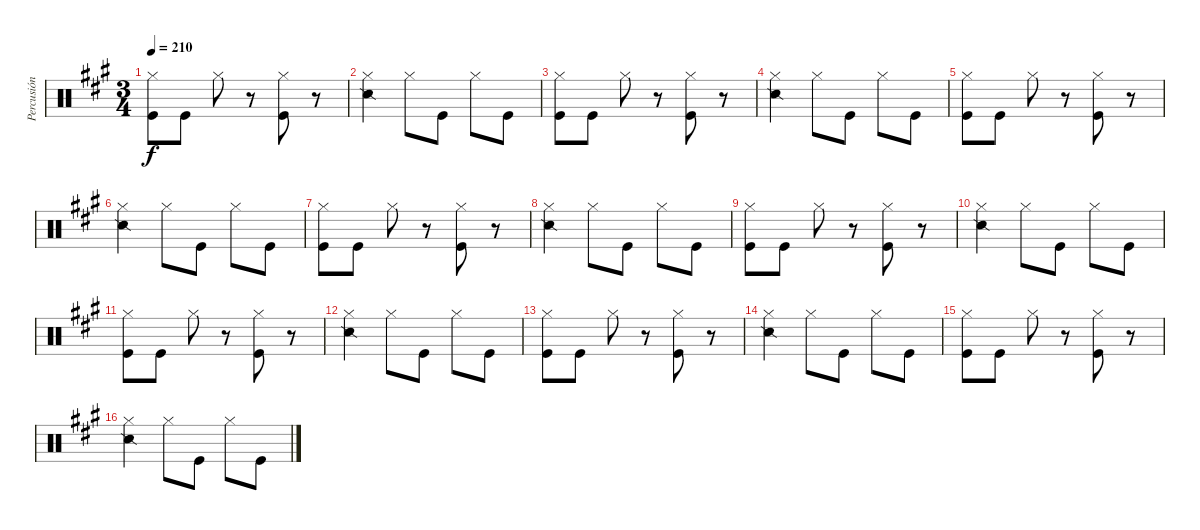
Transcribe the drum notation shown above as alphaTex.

\track ("Percusión" "Percusión") {instrument percussion}
\staff {score}
\articulation defaults
\ts (3 4)
\tempo 210
\clef neutral
\ks a
("Hi-Hat (closed)" "Kick (hit)").8{dy f} "Kick (hit)".8 "Hi-Hat (closed)".8 r.8 ("Hi-Hat (closed)" "Kick (hit)").8 r.8 |
("Hi-Hat (closed)" "Snare (side stick) 2").4 "Hi-Hat (closed)".8 "Kick (hit)".8 "Hi-Hat (closed)".8 "Kick (hit)".8 |
("Hi-Hat (closed)" "Kick (hit)").8 "Kick (hit)".8 "Hi-Hat (closed)".8 r.8 ("Hi-Hat (closed)" "Kick (hit)").8 r.8 |
("Hi-Hat (closed)" "Snare (side stick) 2").4 "Hi-Hat (closed)".8 "Kick (hit)".8 "Hi-Hat (closed)".8 "Kick (hit)".8 |
("Hi-Hat (closed)" "Kick (hit)").8 "Kick (hit)".8 "Hi-Hat (closed)".8 r.8 ("Hi-Hat (closed)" "Kick (hit)").8 r.8 |
("Hi-Hat (closed)" "Snare (side stick) 2").4 "Hi-Hat (closed)".8 "Kick (hit)".8 "Hi-Hat (closed)".8 "Kick (hit)".8 |
("Hi-Hat (closed)" "Kick (hit)").8 "Kick (hit)".8 "Hi-Hat (closed)".8 r.8 ("Hi-Hat (closed)" "Kick (hit)").8 r.8 |
("Hi-Hat (closed)" "Snare (side stick) 2").4 "Hi-Hat (closed)".8 "Kick (hit)".8 "Hi-Hat (closed)".8 "Kick (hit)".8 |
("Hi-Hat (closed)" "Kick (hit)").8 "Kick (hit)".8 "Hi-Hat (closed)".8 r.8 ("Hi-Hat (closed)" "Kick (hit)").8 r.8 |
("Hi-Hat (closed)" "Snare (side stick) 2").4 "Hi-Hat (closed)".8 "Kick (hit)".8 "Hi-Hat (closed)".8 "Kick (hit)".8 |
("Hi-Hat (closed)" "Kick (hit)").8 "Kick (hit)".8 "Hi-Hat (closed)".8 r.8 ("Hi-Hat (closed)" "Kick (hit)").8 r.8 |
("Hi-Hat (closed)" "Snare (side stick) 2").4 "Hi-Hat (closed)".8 "Kick (hit)".8 "Hi-Hat (closed)".8 "Kick (hit)".8 |
("Hi-Hat (closed)" "Kick (hit)").8 "Kick (hit)".8 "Hi-Hat (closed)".8 r.8 ("Hi-Hat (closed)" "Kick (hit)").8 r.8 |
("Hi-Hat (closed)" "Snare (side stick) 2").4 "Hi-Hat (closed)".8 "Kick (hit)".8 "Hi-Hat (closed)".8 "Kick (hit)".8 |
("Hi-Hat (closed)" "Kick (hit)").8 "Kick (hit)".8 "Hi-Hat (closed)".8 r.8 ("Hi-Hat (closed)" "Kick (hit)").8 r.8 |
("Hi-Hat (closed)" "Snare (side stick) 2").4 "Hi-Hat (closed)".8 "Kick (hit)".8 "Hi-Hat (closed)".8 "Kick (hit)".8
